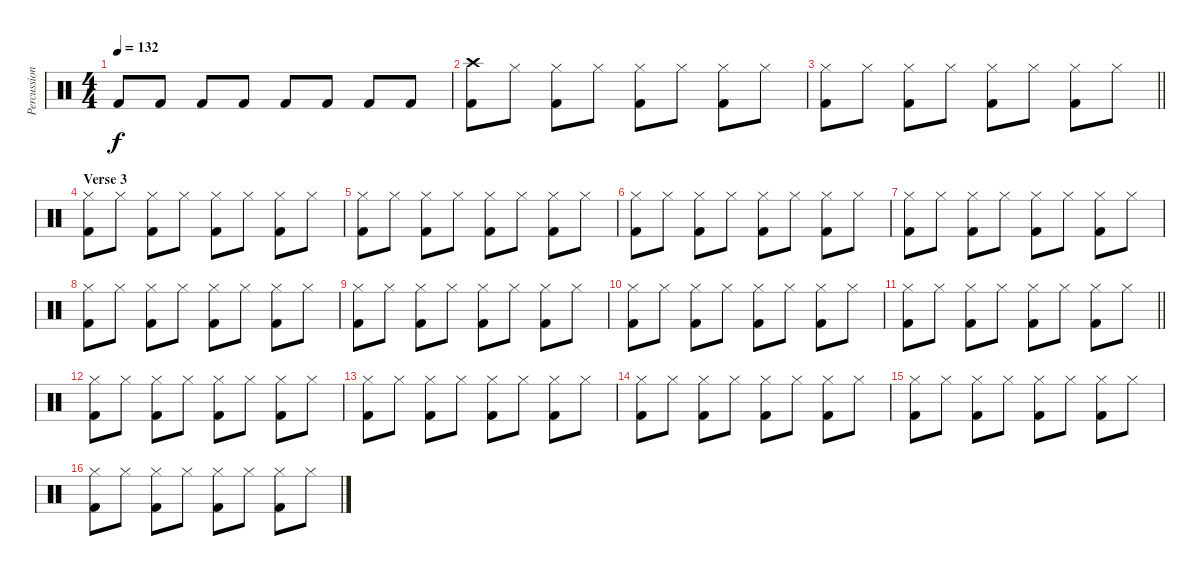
\track ("Percussion" "Percussion") {instrument percussion}
\staff {score}
\articulation defaults
\ts (4 4)
\tempo 132
\clef neutral
\ks c "Kick (hit) 2".8{dy f} "Kick (hit) 2".8 "Kick (hit) 2".8 "Kick (hit) 2".8 "Kick (hit) 2".8 "Kick (hit) 2".8 "Kick (hit) 2".8 "Kick (hit) 2".8
|
("Crash high (hit)" "Kick (hit) 2").8 "Hi-Hat (closed)".8 ("Hi-Hat (closed)" "Kick (hit) 2").8 "Hi-Hat (closed)".8 ("Hi-Hat (closed)" "Kick (hit) 2").8 "Hi-Hat (closed)".8 ("Hi-Hat (closed)" "Kick (hit) 2").8 "Hi-Hat (closed)".8 |
\barLineRight lightlight
("Hi-Hat (closed)" "Kick (hit) 2").8 "Hi-Hat (closed)".8 ("Hi-Hat (closed)" "Kick (hit) 2").8 "Hi-Hat (closed)".8 ("Hi-Hat (closed)" "Kick (hit) 2").8 "Hi-Hat (closed)".8 ("Hi-Hat (closed)" "Kick (hit) 2").8 "Hi-Hat (closed)".8 |
\section ("" "Verse 3")
("Hi-Hat (closed)" "Kick (hit) 2").8 "Hi-Hat (closed)".8 ("Hi-Hat (closed)" "Kick (hit) 2").8 "Hi-Hat (closed)".8 ("Hi-Hat (closed)" "Kick (hit) 2").8 "Hi-Hat (closed)".8 ("Hi-Hat (closed)" "Kick (hit) 2").8 "Hi-Hat (closed)".8 |
("Hi-Hat (closed)" "Kick (hit) 2").8 "Hi-Hat (closed)".8 ("Hi-Hat (closed)" "Kick (hit) 2").8 "Hi-Hat (closed)".8 ("Hi-Hat (closed)" "Kick (hit) 2").8 "Hi-Hat (closed)".8 ("Hi-Hat (closed)" "Kick (hit) 2").8 "Hi-Hat (closed)".8 |
("Hi-Hat (closed)" "Kick (hit) 2").8 "Hi-Hat (closed)".8 ("Hi-Hat (closed)" "Kick (hit) 2").8 "Hi-Hat (closed)".8 ("Hi-Hat (closed)" "Kick (hit) 2").8 "Hi-Hat (closed)".8 ("Hi-Hat (closed)" "Kick (hit) 2").8 "Hi-Hat (closed)".8 |
("Hi-Hat (closed)" "Kick (hit) 2").8 "Hi-Hat (closed)".8 ("Hi-Hat (closed)" "Kick (hit) 2").8 "Hi-Hat (closed)".8 ("Hi-Hat (closed)" "Kick (hit) 2").8 "Hi-Hat (closed)".8 ("Hi-Hat (closed)" "Kick (hit) 2").8 "Hi-Hat (closed)".8 |
("Hi-Hat (closed)" "Kick (hit) 2").8 "Hi-Hat (closed)".8 ("Hi-Hat (closed)" "Kick (hit) 2").8 "Hi-Hat (closed)".8 ("Hi-Hat (closed)" "Kick (hit) 2").8 "Hi-Hat (closed)".8 ("Hi-Hat (closed)" "Kick (hit) 2").8 "Hi-Hat (closed)".8 |
("Hi-Hat (closed)" "Kick (hit) 2").8 "Hi-Hat (closed)".8 ("Hi-Hat (closed)" "Kick (hit) 2").8 "Hi-Hat (closed)".8 ("Hi-Hat (closed)" "Kick (hit) 2").8 "Hi-Hat (closed)".8 ("Hi-Hat (closed)" "Kick (hit) 2").8 "Hi-Hat (closed)".8 |
("Hi-Hat (closed)" "Kick (hit) 2").8 "Hi-Hat (closed)".8 ("Hi-Hat (closed)" "Kick (hit) 2").8 "Hi-Hat (closed)".8 ("Hi-Hat (closed)" "Kick (hit) 2").8 "Hi-Hat (closed)".8 ("Hi-Hat (closed)" "Kick (hit) 2").8 "Hi-Hat (closed)".8 |
\barLineRight lightlight
("Hi-Hat (closed)" "Kick (hit) 2").8 "Hi-Hat (closed)".8 ("Hi-Hat (closed)" "Kick (hit) 2").8 "Hi-Hat (closed)".8 ("Hi-Hat (closed)" "Kick (hit) 2").8 "Hi-Hat (closed)".8 ("Hi-Hat (closed)" "Kick (hit) 2").8 "Hi-Hat (closed)".8 |
("Hi-Hat (closed)" "Kick (hit) 2").8 "Hi-Hat (closed)".8 ("Hi-Hat (closed)" "Kick (hit) 2").8 "Hi-Hat (closed)".8 ("Hi-Hat (closed)" "Kick (hit) 2").8 "Hi-Hat (closed)".8 ("Hi-Hat (closed)" "Kick (hit) 2").8 "Hi-Hat (closed)".8 |
("Hi-Hat (closed)" "Kick (hit) 2").8 "Hi-Hat (closed)".8 ("Hi-Hat (closed)" "Kick (hit) 2").8 "Hi-Hat (closed)".8 ("Hi-Hat (closed)" "Kick (hit) 2").8 "Hi-Hat (closed)".8 ("Hi-Hat (closed)" "Kick (hit) 2").8 "Hi-Hat (closed)".8 |
("Hi-Hat (closed)" "Kick (hit) 2").8 "Hi-Hat (closed)".8 ("Hi-Hat (closed)" "Kick (hit) 2").8 "Hi-Hat (closed)".8 ("Hi-Hat (closed)" "Kick (hit) 2").8 "Hi-Hat (closed)".8 ("Hi-Hat (closed)" "Kick (hit) 2").8 "Hi-Hat (closed)".8 |
("Hi-Hat (closed)" "Kick (hit) 2").8 "Hi-Hat (closed)".8 ("Hi-Hat (closed)" "Kick (hit) 2").8 "Hi-Hat (closed)".8 ("Hi-Hat (closed)" "Kick (hit) 2").8 "Hi-Hat (closed)".8 ("Hi-Hat (closed)" "Kick (hit) 2").8 "Hi-Hat (closed)".8 |
("Hi-Hat (closed)" "Kick (hit) 2").8 "Hi-Hat (closed)".8 ("Hi-Hat (closed)" "Kick (hit) 2").8 "Hi-Hat (closed)".8 ("Hi-Hat (closed)" "Kick (hit) 2").8 "Hi-Hat (closed)".8 ("Hi-Hat (closed)" "Kick (hit) 2").8 "Hi-Hat (closed)".8
